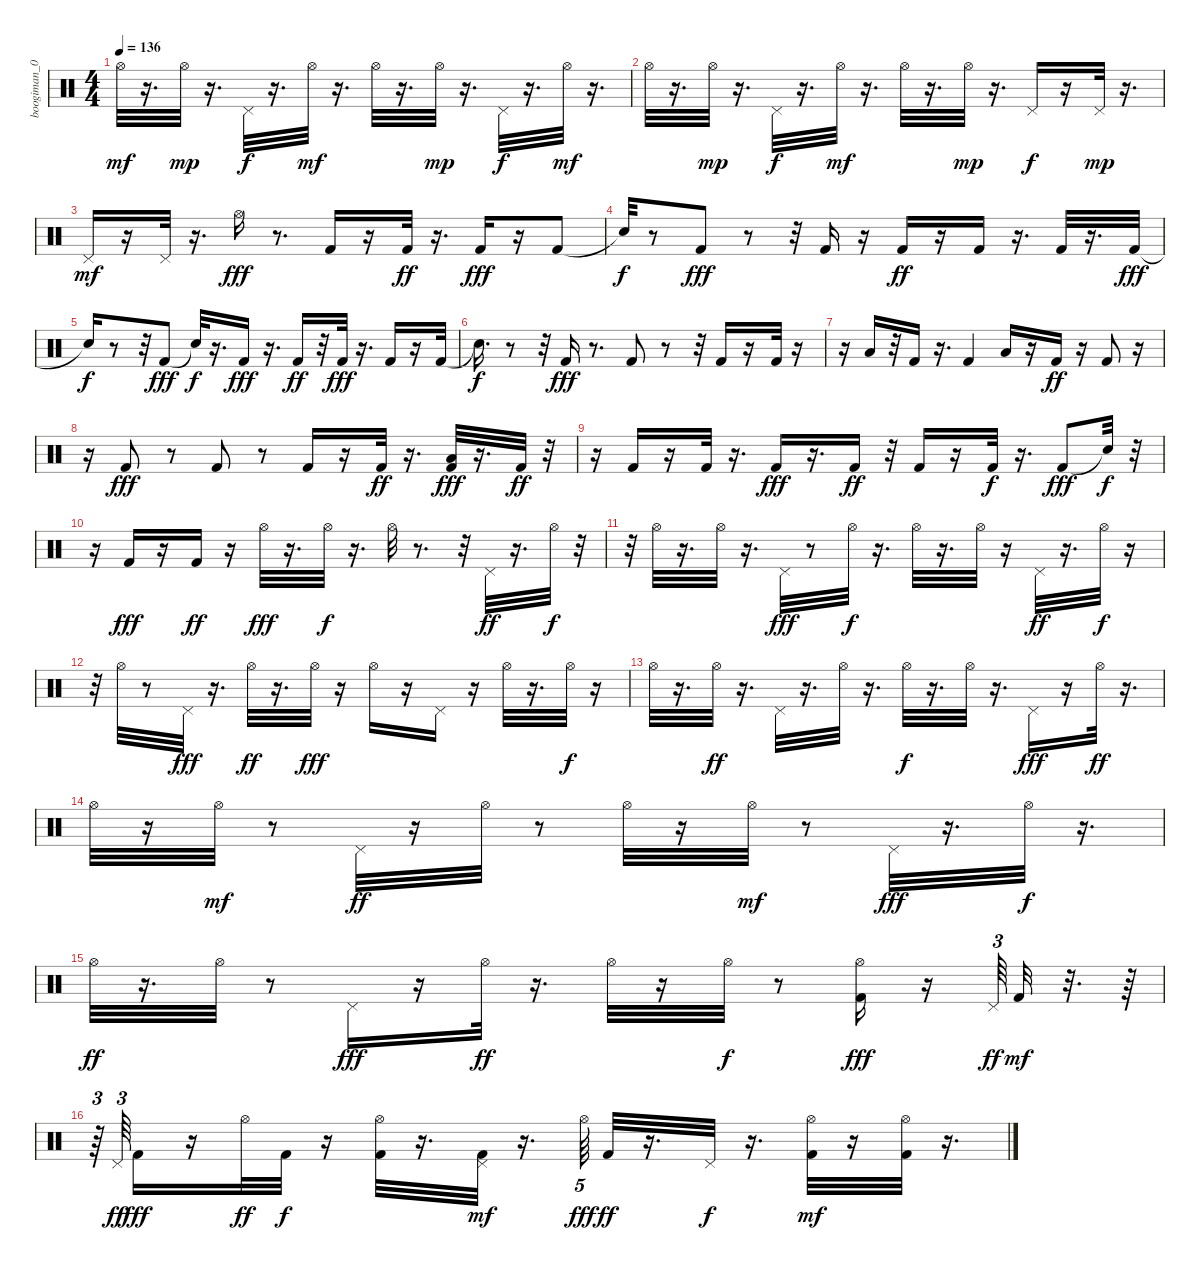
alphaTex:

\track ("boogiman_007@yahoo.com" "boogiman_0") {instrument percussion}
\staff {score}
\articulation defaults
\ts (4 4)
\tempo 136
\clef neutral
\ks c "Hi-Hat (open)".32{dy mf}
r.16{d} "Hi-Hat (open)".32{dy mp} r.16{d} "Pedal Hi-Hat (hit)".32{dy f} r.16{d} "Hi-Hat (open)".32{dy mf} r.16{d} "Hi-Hat (open)".32 r.16{d} "Hi-Hat (open)".32{dy mp} r.16{d} "Pedal Hi-Hat (hit)".32{dy f} r.16{d} "Hi-Hat (open)".32{dy mf} r.16{d} |
"Hi-Hat (open)".32 r.16{d} "Hi-Hat (open)".32{dy mp} r.16{d} "Pedal Hi-Hat (hit)".32{dy f} r.16{d} "Hi-Hat (open)".32{dy mf} r.16{d} "Hi-Hat (open)".32 r.16{d} "Hi-Hat (open)".32{dy mp} r.16{d} "Pedal Hi-Hat (hit)".16{dy f} r.16 "Pedal Hi-Hat (hit)".32{dy mp} r.16{d} |
"Pedal Hi-Hat (hit)".16{dy mf} r.16 "Pedal Hi-Hat (hit)".32 r.16{d} "Hi-Hat (open)".16{dy fff} r.8{d} "Kick (hit) 2".16 r.16 "Kick (hit) 2".32{dy ff} r.16{d} "Kick (hit) 2".16{dy fff} r.16 "Kick (hit) 2".8{volume 12} |
"Snare (hit)"{t}.32{dy f} r.8 "Kick (hit) 2".8{dy fff volume 12} r.8 r.32 "Kick (hit) 2".16{volume 12} r.16 "Kick (hit) 2".16{dy ff volume 13} r.16 "Kick (hit) 2".16 r.16{d} "Kick (hit) 2".32 r.16{d} "Kick (hit) 2".32{dy fff volume 13} |
"Snare (hit)"{t}.16{dy f} r.8 r.32 "Kick (hit) 2".8{dy fff} "Snare (hit)"{t}.32{dy f} r.16{d} "Kick (hit) 2".16{dy fff} r.16{d} "Kick (hit) 2".16{dy ff} r.32 "Kick (hit) 2".32{dy fff} r.16{d} "Kick (hit) 2".16 r.16 "Kick (hit) 2".32 |
"Snare (hit)"{t}.16{d dy f} r.8 r.32 "Kick (hit) 2".16{dy fff} r.8{d} "Kick (hit) 2".8 r.8 r.32 "Kick (hit) 2".16 r.16 "Kick (hit) 2".32 r.16 |
r.16 "Low Floor Tom (hit)".16 r.32 "Kick (hit) 2".16 r.16{d} "Kick (hit) 2".4 "Low Floor Tom (hit)".16{volume 13} r.16 "Kick (hit) 2".16{dy ff volume 13} r.16 "Kick (hit) 2".8 r.16 |
r.16 "Kick (hit) 2".8{dy fff} r.8 "Kick (hit) 2".8 r.8 "Kick (hit) 2".16 r.16 "Kick (hit) 2".32{dy ff} r.16{d} ("Low Floor Tom (hit)" "Kick (hit) 2").32{dy fff} r.16{d} "Kick (hit) 2".32{dy ff} r.32 |
r.16 "Kick (hit) 2".16 r.16 "Kick (hit) 2".32 r.16{d} "Kick (hit) 2".16{dy fff} r.16{d} "Kick (hit) 2".16{dy ff} r.32 "Kick (hit) 2".16 r.16 "Kick (hit) 2".32{dy f} r.16{d} "Kick (hit) 2".8{dy fff} "Snare (hit)"{t}.32{dy f} r.32 |
r.16 "Kick (hit) 2".16{dy fff} r.16 "Kick (hit) 2".16{dy ff} r.16 "Hi-Hat (open)".32{dy fff} r.16{d} "Hi-Hat (open)".32{dy f} r.16{d} "Hi-Hat (open)".32 r.8{d} r.32 "Pedal Hi-Hat (hit)".32{dy ff} r.16{d} "Hi-Hat (open)".32{dy f} r.32 |
r.32 "Hi-Hat (open)".32 r.16{d} "Hi-Hat (open)".32 r.16{d} "Pedal Hi-Hat (hit)".32{dy fff} r.8 "Hi-Hat (open)".32{dy f} r.16{d} "Hi-Hat (open)".32 r.16{d} "Hi-Hat (open)".32 r.16 "Pedal Hi-Hat (hit)".32{dy ff} r.16{d} "Hi-Hat (open)".32{dy f} r.16 |
r.32 "Hi-Hat (open)".32 r.8 "Pedal Hi-Hat (hit)".32{dy fff} r.16{d} "Hi-Hat (open)".32{dy ff} r.16{d} "Hi-Hat (open)".32{dy fff} r.16 "Hi-Hat (open)".16 r.16 "Pedal Hi-Hat (hit)".16 r.16 "Hi-Hat (open)".32 r.16{d} "Hi-Hat (open)".32{dy f} r.16 |
"Hi-Hat (open)".32 r.16{d} "Hi-Hat (open)".32{dy ff} r.16{d} "Pedal Hi-Hat (hit)".32 r.16{d} "Hi-Hat (open)".32 r.16{d} "Hi-Hat (open)".32{dy f} r.16{d} "Hi-Hat (open)".32 r.16{d} "Pedal Hi-Hat (hit)".16{dy fff} r.16 "Hi-Hat (open)".32{dy ff} r.16{d} |
"Hi-Hat (open)".32 r.16 "Hi-Hat (open)".32{dy mf} r.8 "Pedal Hi-Hat (hit)".32{dy ff} r.16 "Hi-Hat (open)".32 r.8 "Hi-Hat (open)".32 r.16 "Hi-Hat (open)".32{dy mf} r.8 "Pedal Hi-Hat (hit)".32{dy fff} r.16{d} "Hi-Hat (open)".32{dy f} r.16{d} |
"Hi-Hat (open)".32{dy ff} r.16{d} "Hi-Hat (open)".32 r.8 "Pedal Hi-Hat (hit)".16{dy fff} r.16 "Hi-Hat (open)".32{dy ff} r.16{d} "Hi-Hat (open)".32 r.16 "Hi-Hat (open)".32{dy f} r.8 ("Hi-Hat (open)" "Kick (hit) 2").16{dy fff} r.16 "Pedal Hi-Hat (hit)".64{tu (3 2) dy ff} "Kick (hit) 2".32{dy mf} r.32{d} r.64 |
r.64{tu (3 2)} "Pedal Hi-Hat (hit)".64{tu (3 2) dy ff} "Kick (hit) 2".16{dy fff} r.16 "Hi-Hat (open)".32{dy ff} "Kick (hit) 2".32{dy f} r.16 ("Hi-Hat (open)" "Kick (hit) 2").32 r.16{d} ("Pedal Hi-Hat (hit)" "Kick (hit) 2").32{dy mf} r.16{d} "Hi-Hat (open)".64{tu (5 4) dy fff} "Kick (hit) 2".32{dy ff} r.16{d} "Pedal Hi-Hat (hit)".32{dy f} r.16{d} ("Hi-Hat (open)" "Kick (hit) 2").32{dy mf} r.16 ("Hi-Hat (open)" "Kick (hit) 2").32 r.16{d}
